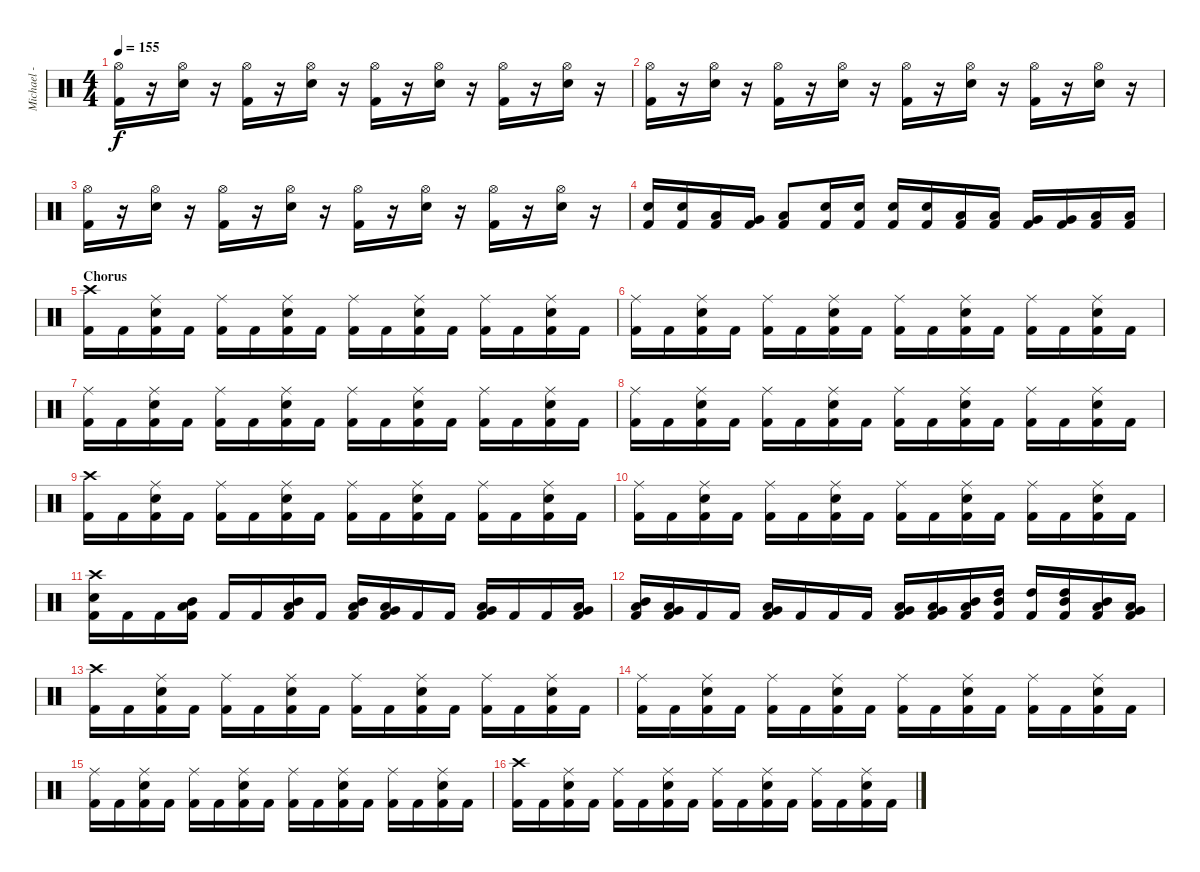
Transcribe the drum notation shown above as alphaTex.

\track ("Michael - Drums" "Michael - ") {instrument percussion}
\staff {score}
\articulation defaults
\ts (4 4)
\tempo 155
\clef neutral
\ks c
("Hi-Hat (open)" "Kick (hit) 2").16{dy f} r.16 ("Hi-Hat (open)" "Electric Snare (hit)").16 r.16 ("Hi-Hat (open)" "Kick (hit) 2").16 r.16 ("Hi-Hat (open)" "Electric Snare (hit)").16 r.16 ("Hi-Hat (open)" "Kick (hit) 2").16 r.16 ("Hi-Hat (open)" "Electric Snare (hit)").16 r.16 ("Hi-Hat (open)" "Kick (hit) 2").16 r.16 ("Hi-Hat (open)" "Electric Snare (hit)").16 r.16 |
("Hi-Hat (open)" "Kick (hit) 2").16 r.16 ("Hi-Hat (open)" "Electric Snare (hit)").16 r.16 ("Hi-Hat (open)" "Kick (hit) 2").16 r.16 ("Hi-Hat (open)" "Electric Snare (hit)").16 r.16 ("Hi-Hat (open)" "Kick (hit) 2").16 r.16 ("Hi-Hat (open)" "Electric Snare (hit)").16 r.16 ("Hi-Hat (open)" "Kick (hit) 2").16 r.16 ("Hi-Hat (open)" "Electric Snare (hit)").16 r.16 |
("Hi-Hat (open)" "Kick (hit) 2").16 r.16 ("Hi-Hat (open)" "Electric Snare (hit)").16 r.16 ("Hi-Hat (open)" "Kick (hit) 2").16 r.16 ("Hi-Hat (open)" "Electric Snare (hit)").16 r.16 ("Hi-Hat (open)" "Kick (hit) 2").16 r.16 ("Hi-Hat (open)" "Electric Snare (hit)").16 r.16 ("Hi-Hat (open)" "Kick (hit) 2").16 r.16 ("Hi-Hat (open)" "Electric Snare (hit)").16 r.16 |
("Electric Snare (hit)" "Kick (hit) 2").16 ("Electric Snare (hit)" "Kick (hit) 2").16 ("Low Tom (hit)" "Kick (hit) 2").16 ("Very Low Tom (hit)" "Kick (hit) 2").16 ("Low Floor Tom (hit)" "Kick (hit) 2").8 ("Electric Snare (hit)" "Kick (hit) 2").16 ("Electric Snare (hit)" "Kick (hit) 2").16 ("Electric Snare (hit)" "Kick (hit) 2").16 ("Electric Snare (hit)" "Kick (hit) 2").16 ("Low Tom (hit)" "Kick (hit) 2").16 ("Low Tom (hit)" "Kick (hit) 2").16 ("Very Low Tom (hit)" "Kick (hit) 2").16 ("Very Low Tom (hit)" "Kick (hit) 2").16 ("Low Floor Tom (hit)" "Kick (hit) 2").16 ("Low Floor Tom (hit)" "Kick (hit) 2").16 |
\section ("" "Chorus")
("Crash high (hit)" "Kick (hit) 2").16 "Kick (hit) 2".16 ("Ride (middle)" "Electric Snare (hit)" "Kick (hit) 2").16 "Kick (hit) 2".16 ("Ride (middle)" "Kick (hit) 2").16 "Kick (hit) 2".16 ("Ride (middle)" "Electric Snare (hit)" "Kick (hit) 2").16 "Kick (hit) 2".16 ("Ride (middle)" "Kick (hit) 2").16 "Kick (hit) 2".16 ("Ride (middle)" "Electric Snare (hit)" "Kick (hit) 2").16 "Kick (hit) 2".16 ("Ride (middle)" "Kick (hit) 2").16 "Kick (hit) 2".16 ("Ride (middle)" "Electric Snare (hit)" "Kick (hit) 2").16 "Kick (hit) 2".16 |
("Ride (middle)" "Kick (hit) 2").16 "Kick (hit) 2".16 ("Ride (middle)" "Electric Snare (hit)" "Kick (hit) 2").16 "Kick (hit) 2".16 ("Ride (middle)" "Kick (hit) 2").16 "Kick (hit) 2".16 ("Ride (middle)" "Electric Snare (hit)" "Kick (hit) 2").16 "Kick (hit) 2".16 ("Ride (middle)" "Kick (hit) 2").16 "Kick (hit) 2".16 ("Ride (middle)" "Electric Snare (hit)" "Kick (hit) 2").16 "Kick (hit) 2".16 ("Ride (middle)" "Kick (hit) 2").16 "Kick (hit) 2".16 ("Ride (middle)" "Electric Snare (hit)" "Kick (hit) 2").16 "Kick (hit) 2".16 |
("Ride (middle)" "Kick (hit) 2").16 "Kick (hit) 2".16 ("Ride (middle)" "Electric Snare (hit)" "Kick (hit) 2").16 "Kick (hit) 2".16 ("Ride (middle)" "Kick (hit) 2").16 "Kick (hit) 2".16 ("Ride (middle)" "Electric Snare (hit)" "Kick (hit) 2").16 "Kick (hit) 2".16 ("Ride (middle)" "Kick (hit) 2").16 "Kick (hit) 2".16 ("Ride (middle)" "Electric Snare (hit)" "Kick (hit) 2").16 "Kick (hit) 2".16 ("Ride (middle)" "Kick (hit) 2").16 "Kick (hit) 2".16 ("Ride (middle)" "Electric Snare (hit)" "Kick (hit) 2").16 "Kick (hit) 2".16 |
("Ride (middle)" "Kick (hit) 2").16 "Kick (hit) 2".16 ("Ride (middle)" "Electric Snare (hit)" "Kick (hit) 2").16 "Kick (hit) 2".16 ("Ride (middle)" "Kick (hit) 2").16 "Kick (hit) 2".16 ("Ride (middle)" "Electric Snare (hit)" "Kick (hit) 2").16 "Kick (hit) 2".16 ("Ride (middle)" "Kick (hit) 2").16 "Kick (hit) 2".16 ("Ride (middle)" "Electric Snare (hit)" "Kick (hit) 2").16 "Kick (hit) 2".16 ("Ride (middle)" "Kick (hit) 2").16 "Kick (hit) 2".16 ("Ride (middle)" "Electric Snare (hit)" "Kick (hit) 2").16 "Kick (hit) 2".16 |
("Crash high (hit)" "Kick (hit) 2").16 "Kick (hit) 2".16 ("Ride (middle)" "Electric Snare (hit)" "Kick (hit) 2").16 "Kick (hit) 2".16 ("Ride (middle)" "Kick (hit) 2").16 "Kick (hit) 2".16 ("Ride (middle)" "Electric Snare (hit)" "Kick (hit) 2").16 "Kick (hit) 2".16 ("Ride (middle)" "Kick (hit) 2").16 "Kick (hit) 2".16 ("Ride (middle)" "Electric Snare (hit)" "Kick (hit) 2").16 "Kick (hit) 2".16 ("Ride (middle)" "Kick (hit) 2").16 "Kick (hit) 2".16 ("Ride (middle)" "Electric Snare (hit)" "Kick (hit) 2").16 "Kick (hit) 2".16 |
("Ride (middle)" "Kick (hit) 2").16 "Kick (hit) 2".16 ("Ride (middle)" "Electric Snare (hit)" "Kick (hit) 2").16 "Kick (hit) 2".16 ("Ride (middle)" "Kick (hit) 2").16 "Kick (hit) 2".16 ("Ride (middle)" "Electric Snare (hit)" "Kick (hit) 2").16 "Kick (hit) 2".16 ("Ride (middle)" "Kick (hit) 2").16 "Kick (hit) 2".16 ("Ride (middle)" "Electric Snare (hit)" "Kick (hit) 2").16 "Kick (hit) 2".16 ("Ride (middle)" "Kick (hit) 2").16 "Kick (hit) 2".16 ("Ride (middle)" "Electric Snare (hit)" "Kick (hit) 2").16 "Kick (hit) 2".16 |
("Crash high (hit)" "Electric Snare (hit)" "Kick (hit) 2").16 "Kick (hit) 2".16 "Kick (hit) 2".16 ("Mid Tom (hit)" "Low Tom (hit)" "Kick (hit) 2").16 "Kick (hit) 2".16 "Kick (hit) 2".16 ("Mid Tom (hit)" "Low Tom (hit)" "Kick (hit) 2").16 "Kick (hit) 2".16 ("Mid Tom (hit)" "Low Tom (hit)" "Kick (hit) 2").16 ("Low Tom (hit)" "Very Low Tom (hit)" "Kick (hit) 2").16 "Kick (hit) 2".16 "Kick (hit) 2".16 ("Low Tom (hit)" "Very Low Tom (hit)" "Kick (hit) 2").16 "Kick (hit) 2".16 "Kick (hit) 2".16 ("Low Tom (hit)" "Very Low Tom (hit)" "Kick (hit) 2").16 |
("Mid Tom (hit)" "Low Tom (hit)" "Kick (hit) 2").16 ("Low Tom (hit)" "Very Low Tom (hit)" "Kick (hit) 2").16 "Kick (hit) 2".16 "Kick (hit) 2".16 ("Low Tom (hit)" "Very Low Tom (hit)" "Kick (hit) 2").16 "Kick (hit) 2".16 "Kick (hit) 2".16 "Kick (hit) 2".16 ("Very Low Tom (hit)" "Low Floor Tom (hit)" "Kick (hit) 2").16 ("Low Tom (hit)" "Very Low Tom (hit)" "Kick (hit) 2").16 ("Mid Tom (hit)" "Low Tom (hit)" "Kick (hit) 2").16 ("High Tom (hit)" "Mid Tom (hit)" "Kick (hit) 2").16 ("High Tom (hit)" "Kick (hit) 2").16 ("High Tom (hit)" "Mid Tom (hit)" "Kick (hit) 2").16 ("Mid Tom (hit)" "Low Tom (hit)" "Kick (hit) 2").16 ("Low Tom (hit)" "Very Low Tom (hit)" "Kick (hit) 2").16 |
("Crash high (hit)" "Kick (hit) 2").16 "Kick (hit) 2".16 ("Ride (middle)" "Electric Snare (hit)" "Kick (hit) 2").16 "Kick (hit) 2".16 ("Ride (middle)" "Kick (hit) 2").16 "Kick (hit) 2".16 ("Ride (middle)" "Electric Snare (hit)" "Kick (hit) 2").16 "Kick (hit) 2".16 ("Ride (middle)" "Kick (hit) 2").16 "Kick (hit) 2".16 ("Ride (middle)" "Electric Snare (hit)" "Kick (hit) 2").16 "Kick (hit) 2".16 ("Ride (middle)" "Kick (hit) 2").16 "Kick (hit) 2".16 ("Ride (middle)" "Electric Snare (hit)" "Kick (hit) 2").16 "Kick (hit) 2".16 |
("Ride (middle)" "Kick (hit) 2").16 "Kick (hit) 2".16 ("Ride (middle)" "Electric Snare (hit)" "Kick (hit) 2").16 "Kick (hit) 2".16 ("Ride (middle)" "Kick (hit) 2").16 "Kick (hit) 2".16 ("Ride (middle)" "Electric Snare (hit)" "Kick (hit) 2").16 "Kick (hit) 2".16 ("Ride (middle)" "Kick (hit) 2").16 "Kick (hit) 2".16 ("Ride (middle)" "Electric Snare (hit)" "Kick (hit) 2").16 "Kick (hit) 2".16 ("Ride (middle)" "Kick (hit) 2").16 "Kick (hit) 2".16 ("Ride (middle)" "Electric Snare (hit)" "Kick (hit) 2").16 "Kick (hit) 2".16 |
("Ride (middle)" "Kick (hit) 2").16 "Kick (hit) 2".16 ("Ride (middle)" "Electric Snare (hit)" "Kick (hit) 2").16 "Kick (hit) 2".16 ("Ride (middle)" "Kick (hit) 2").16 "Kick (hit) 2".16 ("Ride (middle)" "Electric Snare (hit)" "Kick (hit) 2").16 "Kick (hit) 2".16 ("Ride (middle)" "Kick (hit) 2").16 "Kick (hit) 2".16 ("Ride (middle)" "Electric Snare (hit)" "Kick (hit) 2").16 "Kick (hit) 2".16 ("Ride (middle)" "Kick (hit) 2").16 "Kick (hit) 2".16 ("Ride (middle)" "Electric Snare (hit)" "Kick (hit) 2").16 "Kick (hit) 2".16 |
("Crash high (hit)" "Kick (hit) 2").16 "Kick (hit) 2".16 ("Ride (middle)" "Electric Snare (hit)" "Kick (hit) 2").16 "Kick (hit) 2".16 ("Ride (middle)" "Kick (hit) 2").16 "Kick (hit) 2".16 ("Ride (middle)" "Electric Snare (hit)" "Kick (hit) 2").16 "Kick (hit) 2".16 ("Ride (middle)" "Kick (hit) 2").16 "Kick (hit) 2".16 ("Ride (middle)" "Electric Snare (hit)" "Kick (hit) 2").16 "Kick (hit) 2".16 ("Ride (middle)" "Kick (hit) 2").16 "Kick (hit) 2".16 ("Ride (middle)" "Electric Snare (hit)" "Kick (hit) 2").16 "Kick (hit) 2".16
